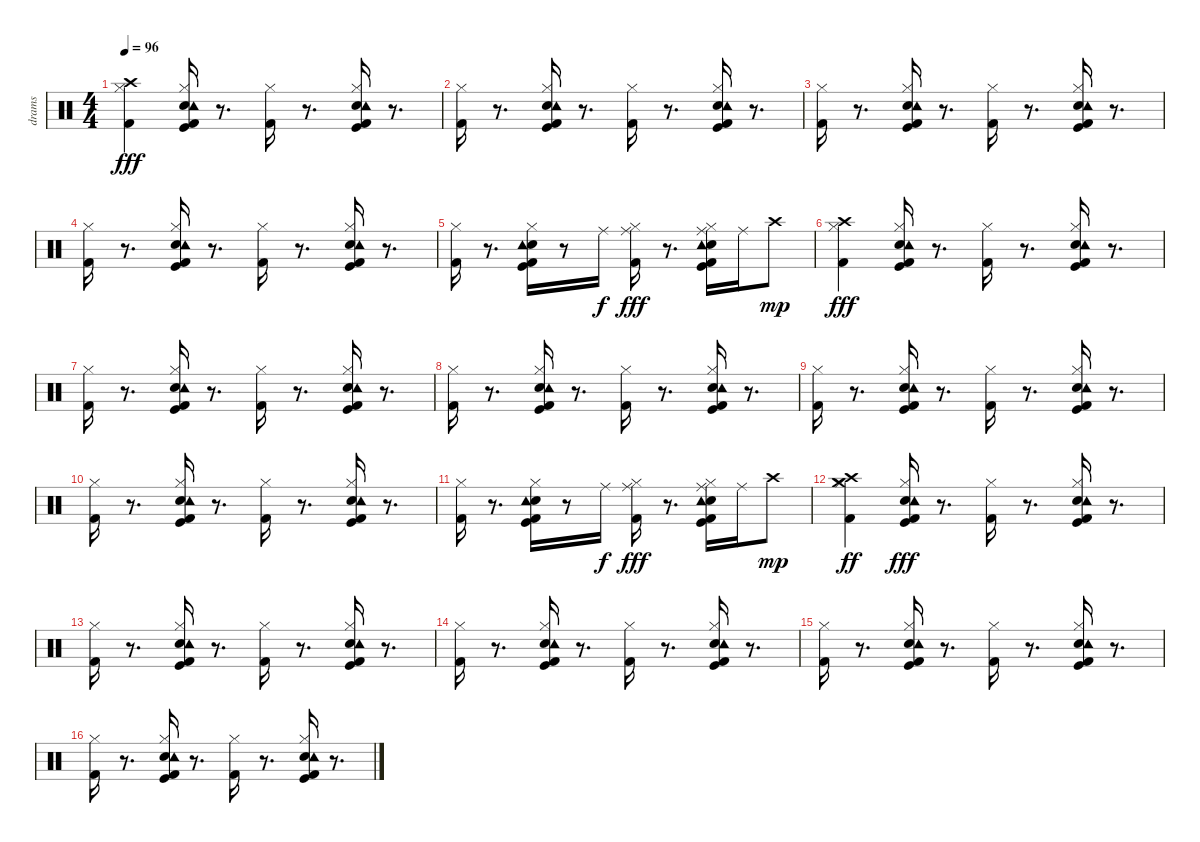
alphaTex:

\track ("drams" "drams") {instrument percussion}
\staff {score}
\articulation defaults
\ts (4 4)
\tempo 96
\clef neutral
\ks c
("Kick (hit) 2" "Hi-Hat (closed)" "Crash high (hit)").4{dy fff} ("Kick (hit)" "Kick (hit) 2" "Electric Snare (hit)" "Hi-Hat (closed)" "Tambourine (hit)").16 r.8{d} ("Kick (hit) 2" "Hi-Hat (closed)").16 r.8{d} ("Kick (hit)" "Kick (hit) 2" "Electric Snare (hit)" "Hi-Hat (closed)" "Tambourine (hit)").16 r.8{d} |
("Kick (hit) 2" "Hi-Hat (closed)").16 r.8{d} ("Kick (hit)" "Kick (hit) 2" "Electric Snare (hit)" "Hi-Hat (closed)" "Tambourine (hit)").16 r.8{d} ("Kick (hit) 2" "Hi-Hat (closed)").16 r.8{d} ("Kick (hit)" "Kick (hit) 2" "Electric Snare (hit)" "Hi-Hat (closed)" "Tambourine (hit)").16 r.8{d} |
("Kick (hit) 2" "Hi-Hat (closed)").16 r.8{d} ("Kick (hit)" "Kick (hit) 2" "Electric Snare (hit)" "Hi-Hat (closed)" "Tambourine (hit)").16 r.8{d} ("Kick (hit) 2" "Hi-Hat (closed)").16 r.8{d} ("Kick (hit)" "Kick (hit) 2" "Electric Snare (hit)" "Hi-Hat (closed)" "Tambourine (hit)").16 r.8{d} |
("Kick (hit) 2" "Hi-Hat (closed)").16 r.8{d} ("Kick (hit)" "Kick (hit) 2" "Electric Snare (hit)" "Hi-Hat (closed)" "Tambourine (hit)").16 r.8{d} ("Kick (hit) 2" "Hi-Hat (closed)").16 r.8{d} ("Kick (hit)" "Kick (hit) 2" "Electric Snare (hit)" "Hi-Hat (closed)" "Tambourine (hit)").16 r.8{d} |
("Kick (hit) 2" "Hi-Hat (closed)").16 r.8{d} ("Kick (hit)" "Kick (hit) 2" "Electric Snare (hit)" "Hi-Hat (closed)" "Tambourine (hit)").16 r.8 "Ride (middle)".16{dy f} ("Kick (hit) 2" "Hi-Hat (closed)" "Ride (middle)").16{dy fff} r.8{d} ("Kick (hit)" "Kick (hit) 2" "Electric Snare (hit)" "Hi-Hat (closed)" "Ride (middle)" "Tambourine (hit)").16 "Ride (middle)".16 "Crash high (hit)".8{dy mp} |
("Kick (hit) 2" "Hi-Hat (closed)" "Crash high (hit)").4{dy fff} ("Kick (hit)" "Kick (hit) 2" "Electric Snare (hit)" "Hi-Hat (closed)" "Tambourine (hit)").16 r.8{d} ("Kick (hit) 2" "Hi-Hat (closed)").16 r.8{d} ("Kick (hit)" "Kick (hit) 2" "Electric Snare (hit)" "Hi-Hat (closed)" "Tambourine (hit)").16 r.8{d} |
("Kick (hit) 2" "Hi-Hat (closed)").16 r.8{d} ("Kick (hit)" "Kick (hit) 2" "Electric Snare (hit)" "Hi-Hat (closed)" "Tambourine (hit)").16 r.8{d} ("Kick (hit) 2" "Hi-Hat (closed)").16 r.8{d} ("Kick (hit)" "Kick (hit) 2" "Electric Snare (hit)" "Hi-Hat (closed)" "Tambourine (hit)").16 r.8{d} |
("Kick (hit) 2" "Hi-Hat (closed)").16 r.8{d} ("Kick (hit)" "Kick (hit) 2" "Electric Snare (hit)" "Hi-Hat (closed)" "Tambourine (hit)").16 r.8{d} ("Kick (hit) 2" "Hi-Hat (closed)").16 r.8{d} ("Kick (hit)" "Kick (hit) 2" "Electric Snare (hit)" "Hi-Hat (closed)" "Tambourine (hit)").16 r.8{d} |
("Kick (hit) 2" "Hi-Hat (closed)").16 r.8{d} ("Kick (hit)" "Kick (hit) 2" "Electric Snare (hit)" "Hi-Hat (closed)" "Tambourine (hit)").16 r.8{d} ("Kick (hit) 2" "Hi-Hat (closed)").16 r.8{d} ("Kick (hit)" "Kick (hit) 2" "Electric Snare (hit)" "Hi-Hat (closed)" "Tambourine (hit)").16 r.8{d} |
("Kick (hit) 2" "Hi-Hat (closed)").16 r.8{d} ("Kick (hit)" "Kick (hit) 2" "Electric Snare (hit)" "Hi-Hat (closed)" "Tambourine (hit)").16 r.8{d} ("Kick (hit) 2" "Hi-Hat (closed)").16 r.8{d} ("Kick (hit)" "Kick (hit) 2" "Electric Snare (hit)" "Hi-Hat (closed)" "Tambourine (hit)").16 r.8{d} |
("Kick (hit) 2" "Hi-Hat (closed)").16 r.8{d} ("Kick (hit)" "Kick (hit) 2" "Electric Snare (hit)" "Hi-Hat (closed)" "Tambourine (hit)").16 r.8 "Ride (middle)".16{dy f} ("Kick (hit) 2" "Hi-Hat (closed)" "Ride (middle)").16{dy fff} r.8{d} ("Kick (hit)" "Kick (hit) 2" "Electric Snare (hit)" "Hi-Hat (closed)" "Ride (middle)" "Tambourine (hit)").16 "Ride (middle)".16 "Crash high (hit)".8{dy mp} |
("Kick (hit) 2" "Hi-Hat (closed)" "Crash high (hit)" "Crash medium (hit)").4{dy ff} ("Kick (hit)" "Kick (hit) 2" "Electric Snare (hit)" "Hi-Hat (closed)" "Tambourine (hit)").16{dy fff} r.8{d} ("Kick (hit) 2" "Hi-Hat (closed)").16 r.8{d} ("Kick (hit)" "Kick (hit) 2" "Electric Snare (hit)" "Hi-Hat (closed)" "Tambourine (hit)").16 r.8{d} |
("Kick (hit) 2" "Hi-Hat (closed)").16 r.8{d} ("Kick (hit)" "Kick (hit) 2" "Electric Snare (hit)" "Hi-Hat (closed)" "Tambourine (hit)").16 r.8{d} ("Kick (hit) 2" "Hi-Hat (closed)").16 r.8{d} ("Kick (hit)" "Kick (hit) 2" "Electric Snare (hit)" "Hi-Hat (closed)" "Tambourine (hit)").16 r.8{d} |
("Kick (hit) 2" "Hi-Hat (closed)").16 r.8{d} ("Kick (hit)" "Kick (hit) 2" "Electric Snare (hit)" "Hi-Hat (closed)" "Tambourine (hit)").16 r.8{d} ("Kick (hit) 2" "Hi-Hat (closed)").16 r.8{d} ("Kick (hit)" "Kick (hit) 2" "Electric Snare (hit)" "Hi-Hat (closed)" "Tambourine (hit)").16 r.8{d} |
("Kick (hit) 2" "Hi-Hat (closed)").16 r.8{d} ("Kick (hit)" "Kick (hit) 2" "Electric Snare (hit)" "Hi-Hat (closed)" "Tambourine (hit)").16 r.8{d} ("Kick (hit) 2" "Hi-Hat (closed)").16 r.8{d} ("Kick (hit)" "Kick (hit) 2" "Electric Snare (hit)" "Hi-Hat (closed)" "Tambourine (hit)").16 r.8{d} |
("Kick (hit) 2" "Hi-Hat (closed)").16 r.8{d} ("Kick (hit)" "Kick (hit) 2" "Electric Snare (hit)" "Hi-Hat (closed)" "Tambourine (hit)").16 r.8{d} ("Kick (hit) 2" "Hi-Hat (closed)").16 r.8{d} ("Kick (hit)" "Kick (hit) 2" "Electric Snare (hit)" "Hi-Hat (closed)" "Tambourine (hit)").16 r.8{d}
